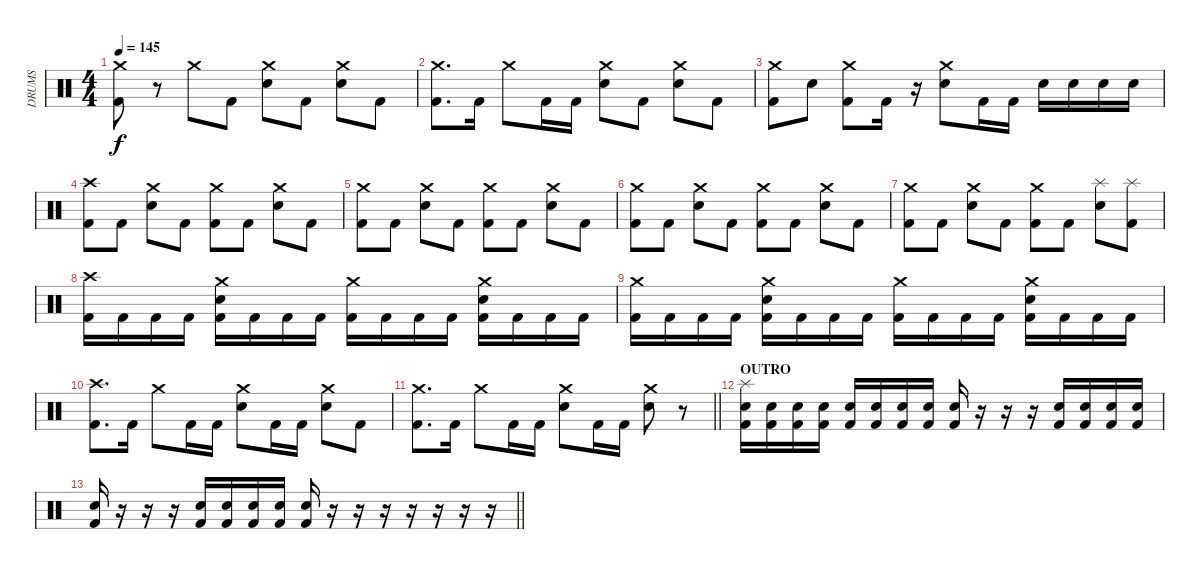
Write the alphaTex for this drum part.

\track ("DRUMS" "DRUMS") {instrument percussion}
\staff {score}
\articulation defaults
\ts (4 4)
\tempo 145
\clef neutral
\ks c
("Crash medium (hit)" "Kick (hit) 2").8{dy f} r.8 "Crash medium (hit)".8 "Kick (hit) 2".8 ("Crash medium (hit)" "Electric Snare (hit)").8 "Kick (hit) 2".8 ("Crash medium (hit)" "Electric Snare (hit)").8 "Kick (hit) 2".8 |
("Crash medium (hit)" "Kick (hit) 2").8{d} "Kick (hit) 2".16 "Crash medium (hit)".8 "Kick (hit) 2".16 "Kick (hit) 2".16 ("Crash medium (hit)" "Electric Snare (hit)").8 "Kick (hit) 2".8 ("Crash medium (hit)" "Electric Snare (hit)").8 "Kick (hit) 2".8 |
("Crash medium (hit)" "Kick (hit) 2").8 "Electric Snare (hit)".8 ("Crash medium (hit)" "Kick (hit) 2").8 "Kick (hit) 2".16 r.16 ("Crash medium (hit)" "Electric Snare (hit)").8 "Kick (hit) 2".16 "Kick (hit) 2".16 "Electric Snare (hit)".16 "Electric Snare (hit)".16 "Electric Snare (hit)".16 "Electric Snare (hit)".16 |
("Crash high (hit)" "Kick (hit) 2").8 "Kick (hit) 2".8 ("Crash medium (hit)" "Electric Snare (hit)").8 "Kick (hit) 2".8 ("Crash medium (hit)" "Kick (hit) 2").8 "Kick (hit) 2".8 ("Crash medium (hit)" "Electric Snare (hit)").8 "Kick (hit) 2".8 |
("Crash medium (hit)" "Kick (hit) 2").8 "Kick (hit) 2".8 ("Crash medium (hit)" "Electric Snare (hit)").8 "Kick (hit) 2".8 ("Crash medium (hit)" "Kick (hit) 2").8 "Kick (hit) 2".8 ("Crash medium (hit)" "Electric Snare (hit)").8 "Kick (hit) 2".8 |
("Crash medium (hit)" "Kick (hit) 2").8 "Kick (hit) 2".8 ("Crash medium (hit)" "Electric Snare (hit)").8 "Kick (hit) 2".8 ("Crash medium (hit)" "Kick (hit) 2").8 "Kick (hit) 2".8 ("Crash medium (hit)" "Electric Snare (hit)").8 "Kick (hit) 2".8 |
("Crash medium (hit)" "Kick (hit) 2").8 "Kick (hit) 2".8 ("Crash medium (hit)" "Electric Snare (hit)").8 "Kick (hit) 2".8 ("Crash medium (hit)" "Kick (hit) 2").8 "Kick (hit) 2".8 ("Splash (hit)" "Electric Snare (hit)").8 ("Splash (hit)" "Kick (hit) 2").8 |
("Crash high (hit)" "Kick (hit) 2").16 "Kick (hit) 2".16 "Kick (hit) 2".16 "Kick (hit) 2".16 ("Crash medium (hit)" "Electric Snare (hit)" "Kick (hit) 2").16 "Kick (hit) 2".16 "Kick (hit) 2".16 "Kick (hit) 2".16 ("Crash medium (hit)" "Kick (hit) 2").16 "Kick (hit) 2".16 "Kick (hit) 2".16 "Kick (hit) 2".16 ("Crash medium (hit)" "Electric Snare (hit)" "Kick (hit) 2").16 "Kick (hit) 2".16 "Kick (hit) 2".16 "Kick (hit) 2".16 |
("Crash medium (hit)" "Kick (hit) 2").16 "Kick (hit) 2".16 "Kick (hit) 2".16 "Kick (hit) 2".16 ("Crash medium (hit)" "Electric Snare (hit)" "Kick (hit) 2").16 "Kick (hit) 2".16 "Kick (hit) 2".16 "Kick (hit) 2".16 ("Crash medium (hit)" "Kick (hit) 2").16 "Kick (hit) 2".16 "Kick (hit) 2".16 "Kick (hit) 2".16 ("Crash medium (hit)" "Electric Snare (hit)" "Kick (hit) 2").16 "Kick (hit) 2".16 "Kick (hit) 2".16 "Kick (hit) 2".16 |
("Crash high (hit)" "Kick (hit) 2").8{d} "Kick (hit) 2".16 "Crash medium (hit)".8 "Kick (hit) 2".16 "Kick (hit) 2".16 ("Crash medium (hit)" "Electric Snare (hit)").8 "Kick (hit) 2".16 "Kick (hit) 2".16 ("Crash medium (hit)" "Electric Snare (hit)").8 "Kick (hit) 2".8 |
\barLineRight lightlight
("Crash medium (hit)" "Kick (hit) 2").8{d} "Kick (hit) 2".16 "Crash medium (hit)".8 "Kick (hit) 2".16 "Kick (hit) 2".16 ("Crash medium (hit)" "Electric Snare (hit)").8 "Kick (hit) 2".16 "Kick (hit) 2".16 ("Crash medium (hit)" "Electric Snare (hit)").8 r.8 |
\section ("" "OUTRO")
("Splash (hit)" "Electric Snare (hit)" "Kick (hit) 2").16 ("Electric Snare (hit)" "Kick (hit) 2").16 ("Electric Snare (hit)" "Kick (hit) 2").16 ("Electric Snare (hit)" "Kick (hit) 2").16 ("Electric Snare (hit)" "Kick (hit) 2").16 ("Electric Snare (hit)" "Kick (hit) 2").16 ("Electric Snare (hit)" "Kick (hit) 2").16 ("Electric Snare (hit)" "Kick (hit) 2").16 ("Electric Snare (hit)" "Kick (hit) 2").16 r.16 r.16 r.16 ("Electric Snare (hit)" "Kick (hit) 2").16 ("Electric Snare (hit)" "Kick (hit) 2").16 ("Electric Snare (hit)" "Kick (hit) 2").16 ("Electric Snare (hit)" "Kick (hit) 2").16 |
\barLineRight lightlight
("Electric Snare (hit)" "Kick (hit) 2").16 r.16 r.16 r.16 ("Electric Snare (hit)" "Kick (hit) 2").16 ("Electric Snare (hit)" "Kick (hit) 2").16 ("Electric Snare (hit)" "Kick (hit) 2").16 ("Electric Snare (hit)" "Kick (hit) 2").16 ("Electric Snare (hit)" "Kick (hit) 2").16 r.16 r.16 r.16 r.16 r.16 r.16 r.16
